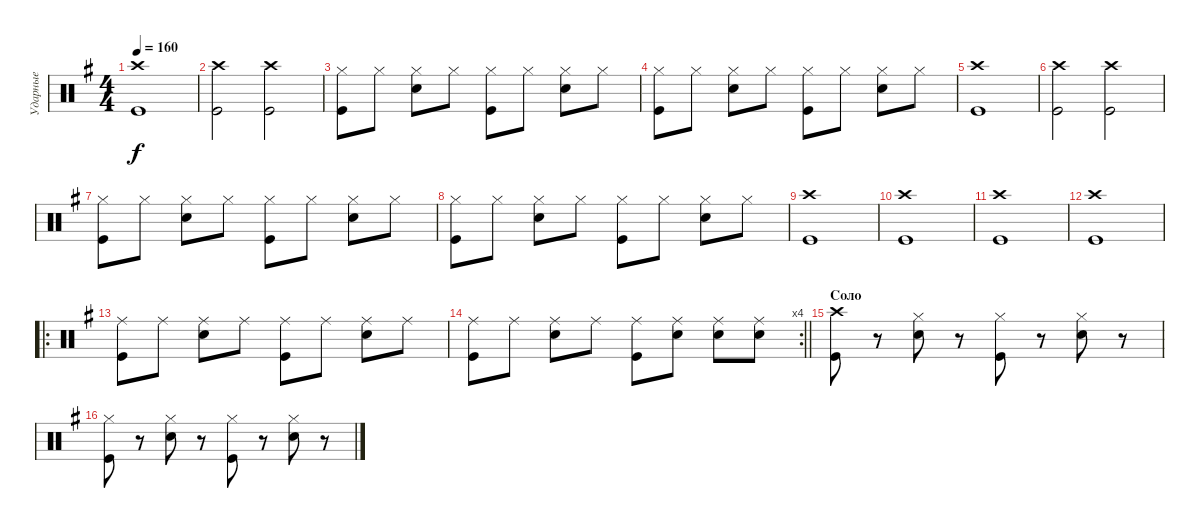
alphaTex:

\track ("Ударные" "Ударные") {instrument percussion}
\staff {score}
\articulation defaults
\ts (4 4)
\tempo 160
\clef neutral
\ks eminor
("Crash high (hit)" "Kick (hit)").1{dy f} |
("Crash high (hit)" "Kick (hit)").2 ("Crash high (hit)" "Kick (hit)").2 |
("Hi-Hat (closed)" "Kick (hit)").8 "Hi-Hat (closed)".8 ("Hi-Hat (closed)" "Electric Snare (hit)").8 "Hi-Hat (closed)".8 ("Hi-Hat (closed)" "Kick (hit)").8 "Hi-Hat (closed)".8 ("Hi-Hat (closed)" "Electric Snare (hit)").8 "Hi-Hat (closed)".8 |
("Hi-Hat (closed)" "Kick (hit)").8 "Hi-Hat (closed)".8 ("Hi-Hat (closed)" "Electric Snare (hit)").8 "Hi-Hat (closed)".8 ("Hi-Hat (closed)" "Kick (hit)").8 "Hi-Hat (closed)".8 ("Hi-Hat (closed)" "Electric Snare (hit)").8 "Hi-Hat (closed)".8 |
("Crash high (hit)" "Kick (hit)").1 |
("Crash high (hit)" "Kick (hit)").2 ("Crash high (hit)" "Kick (hit)").2 |
("Hi-Hat (closed)" "Kick (hit)").8 "Hi-Hat (closed)".8 ("Hi-Hat (closed)" "Electric Snare (hit)").8 "Hi-Hat (closed)".8 ("Hi-Hat (closed)" "Kick (hit)").8 "Hi-Hat (closed)".8 ("Hi-Hat (closed)" "Electric Snare (hit)").8 "Hi-Hat (closed)".8 |
("Hi-Hat (closed)" "Kick (hit)").8 "Hi-Hat (closed)".8 ("Hi-Hat (closed)" "Electric Snare (hit)").8 "Hi-Hat (closed)".8 ("Hi-Hat (closed)" "Kick (hit)").8 "Hi-Hat (closed)".8 ("Hi-Hat (closed)" "Electric Snare (hit)").8 "Hi-Hat (closed)".8 |
("Crash high (hit)" "Kick (hit)").1 |
("Crash high (hit)" "Kick (hit)").1 |
("Crash high (hit)" "Kick (hit)").1 |
("Crash high (hit)" "Kick (hit)").1 |
\ro
("Ride (middle)" "Kick (hit)").8 "Ride (middle)".8 ("Ride (middle)" "Electric Snare (hit)").8 "Ride (middle)".8 ("Ride (middle)" "Kick (hit)").8 "Ride (middle)".8 ("Ride (middle)" "Electric Snare (hit)").8 "Ride (middle)".8 |
\rc 4
\barLineRight lightlight
("Ride (middle)" "Kick (hit)").8 "Ride (middle)".8 ("Ride (middle)" "Electric Snare (hit)").8 "Ride (middle)".8 ("Ride (middle)" "Kick (hit)").8 ("Ride (middle)" "Electric Snare (hit)").8 ("Ride (middle)" "Electric Snare (hit)").8 ("Ride (middle)" "Electric Snare (hit)").8 |
\section ("" "Соло")
("Crash high (hit)" "Kick (hit)").8 r.8 ("Hi-Hat (closed)" "Electric Snare (hit)").8 r.8 ("Hi-Hat (closed)" "Kick (hit)").8 r.8 ("Hi-Hat (closed)" "Electric Snare (hit)").8 r.8 |
("Hi-Hat (closed)" "Kick (hit)").8 r.8 ("Hi-Hat (closed)" "Electric Snare (hit)").8 r.8 ("Hi-Hat (closed)" "Kick (hit)").8 r.8 ("Hi-Hat (closed)" "Electric Snare (hit)").8 r.8
